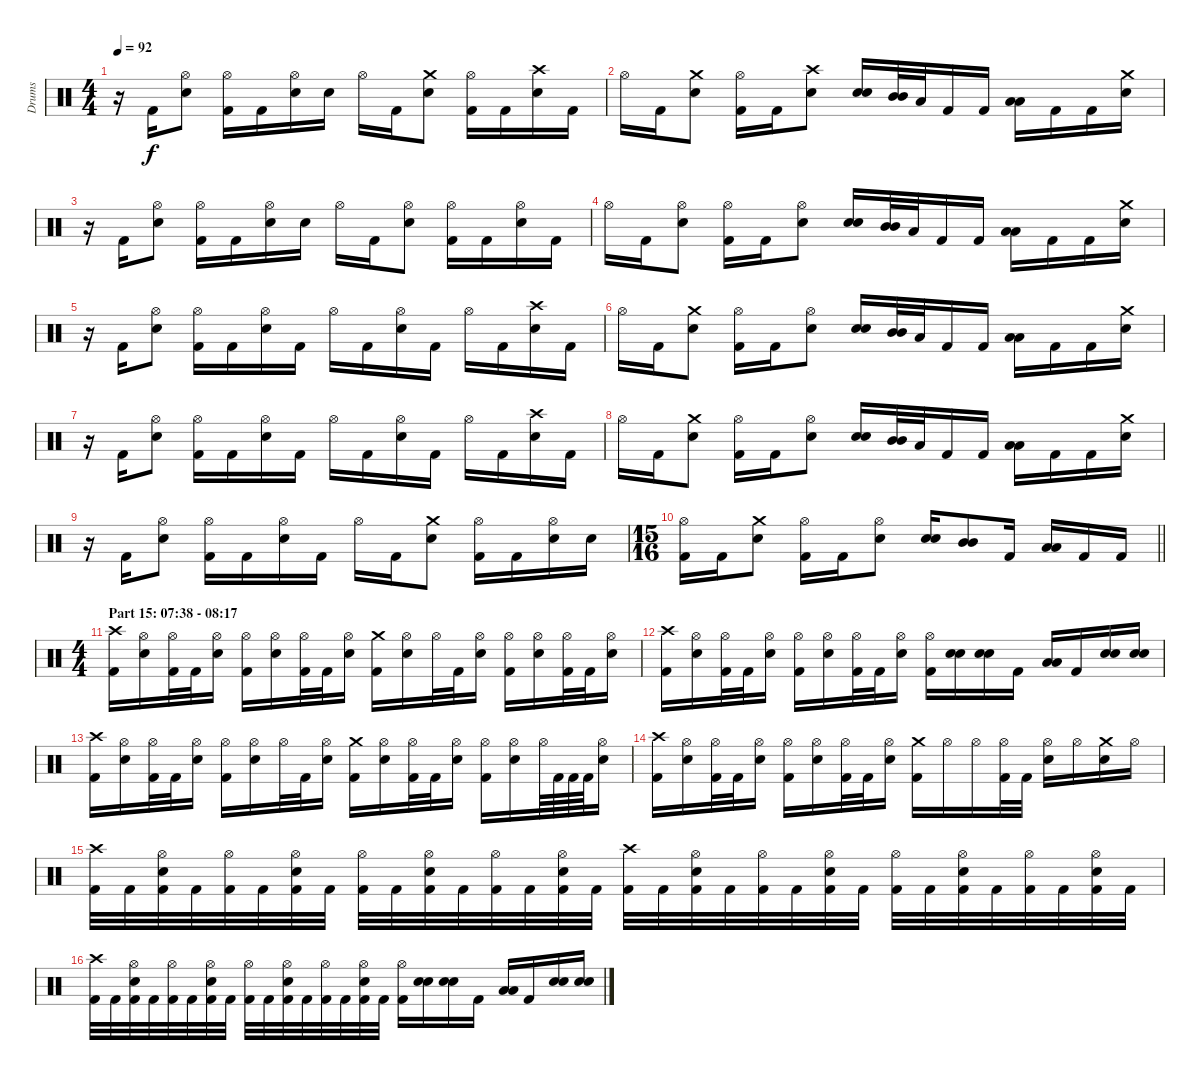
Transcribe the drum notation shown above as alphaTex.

\track ("Drums" "Drums") {instrument percussion}
\staff {score}
\articulation defaults
\ts (4 4)
\tempo 92
\clef neutral
\ks c
r.16{dy f} "Kick (hit) 2".16 ("Hi-Hat (open)" "Electric Snare (hit)").8 ("Hi-Hat (open)" "Kick (hit) 2").16 "Kick (hit) 2".16 ("Hi-Hat (open)" "Electric Snare (hit)").16 "Electric Snare (hit)".16 "Hi-Hat (open)".16 "Kick (hit) 2".16 ("Crash medium (hit)" "Electric Snare (hit)").8 ("Hi-Hat (open)" "Kick (hit) 2").16 "Kick (hit) 2".16 ("Crash high (hit)" "Electric Snare (hit)").16 "Kick (hit) 2".16 |
"Hi-Hat (open)".16 "Kick (hit) 2".16 ("Crash medium (hit)" "Electric Snare (hit)").8 ("Hi-Hat (open)" "Kick (hit) 2").16 "Kick (hit) 2".16 ("Crash high (hit)" "Electric Snare (hit)").8 ("Electric Snare (hit)" "Electric Snare (hit)").16{bd 30} ("Mid Tom (hit)" "Mid Tom (hit)").32{bd 30} "Low Tom (hit)".32 "Kick (hit) 2".16 "Kick (hit) 2".16 ("Low Tom (hit)" "Low Tom (hit)").16{bd 30} "Kick (hit) 2".16 "Kick (hit) 2".16 ("Crash medium (hit)" "Electric Snare (hit)").16 |
r.16 "Kick (hit) 2".16 ("Hi-Hat (open)" "Electric Snare (hit)").8 ("Hi-Hat (open)" "Kick (hit) 2").16 "Kick (hit) 2".16 ("Hi-Hat (open)" "Electric Snare (hit)").16 "Electric Snare (hit)".16 "Hi-Hat (open)".16 "Kick (hit) 2".16 ("Hi-Hat (open)" "Electric Snare (hit)").8 ("Hi-Hat (open)" "Kick (hit) 2").16 "Kick (hit) 2".16 ("Hi-Hat (open)" "Electric Snare (hit)").16 "Kick (hit) 2".16 |
"Hi-Hat (open)".16 "Kick (hit) 2".16 ("Hi-Hat (open)" "Electric Snare (hit)").8 ("Hi-Hat (open)" "Kick (hit) 2").16 "Kick (hit) 2".16 ("Hi-Hat (open)" "Electric Snare (hit)").8 ("Electric Snare (hit)" "Electric Snare (hit)").16{bd 30} ("Mid Tom (hit)" "Mid Tom (hit)").32{bd 30} "Low Tom (hit)".32 "Kick (hit) 2".16 "Kick (hit) 2".16 ("Low Tom (hit)" "Low Tom (hit)").16{bd 30} "Kick (hit) 2".16 "Kick (hit) 2".16 ("Crash medium (hit)" "Electric Snare (hit)").16 |
r.16 "Kick (hit) 2".16 ("Hi-Hat (open)" "Electric Snare (hit)").8 ("Hi-Hat (open)" "Kick (hit) 2").16 "Kick (hit) 2".16 ("Hi-Hat (open)" "Electric Snare (hit)").16 "Kick (hit) 2".16 "Hi-Hat (open)".16 "Kick (hit) 2".16 ("Hi-Hat (open)" "Electric Snare (hit)").16 "Kick (hit) 2".16 "Hi-Hat (open)".16 "Kick (hit) 2".16 ("Crash high (hit)" "Electric Snare (hit)").16 "Kick (hit) 2".16 |
"Hi-Hat (open)".16 "Kick (hit) 2".16 ("Crash medium (hit)" "Electric Snare (hit)").8 ("Hi-Hat (open)" "Kick (hit) 2").16 "Kick (hit) 2".16 ("Hi-Hat (open)" "Electric Snare (hit)").8 ("Electric Snare (hit)" "Electric Snare (hit)").16{bd 30} ("Mid Tom (hit)" "Mid Tom (hit)").32{bd 30} "Low Tom (hit)".32 "Kick (hit) 2".16 "Kick (hit) 2".16 ("Low Tom (hit)" "Low Tom (hit)").16{bd 30} "Kick (hit) 2".16 "Kick (hit) 2".16 ("Crash medium (hit)" "Electric Snare (hit)").16 |
r.16 "Kick (hit) 2".16 ("Hi-Hat (open)" "Electric Snare (hit)").8 ("Hi-Hat (open)" "Kick (hit) 2").16 "Kick (hit) 2".16 ("Hi-Hat (open)" "Electric Snare (hit)").16 "Kick (hit) 2".16 "Hi-Hat (open)".16 "Kick (hit) 2".16 ("Hi-Hat (open)" "Electric Snare (hit)").16 "Kick (hit) 2".16 "Hi-Hat (open)".16 "Kick (hit) 2".16 ("Crash high (hit)" "Electric Snare (hit)").16 "Kick (hit) 2".16 |
"Hi-Hat (open)".16 "Kick (hit) 2".16 ("Crash medium (hit)" "Electric Snare (hit)").8 ("Hi-Hat (open)" "Kick (hit) 2").16 "Kick (hit) 2".16 ("Hi-Hat (open)" "Electric Snare (hit)").8 ("Electric Snare (hit)" "Electric Snare (hit)").16{bd 30} ("Mid Tom (hit)" "Mid Tom (hit)").32{bd 30} "Low Tom (hit)".32 "Kick (hit) 2".16 "Kick (hit) 2".16 ("Low Tom (hit)" "Low Tom (hit)").16{bd 30} "Kick (hit) 2".16 "Kick (hit) 2".16 ("Crash medium (hit)" "Electric Snare (hit)").16 |
r.16 "Kick (hit) 2".16 ("Hi-Hat (open)" "Electric Snare (hit)").8 ("Hi-Hat (open)" "Kick (hit) 2").16 "Kick (hit) 2".16 ("Hi-Hat (open)" "Electric Snare (hit)").16 "Kick (hit) 2".16 "Hi-Hat (open)".16 "Kick (hit) 2".16 ("Crash medium (hit)" "Electric Snare (hit)").8 ("Hi-Hat (open)" "Kick (hit) 2").16 "Kick (hit) 2".16 ("Hi-Hat (open)" "Electric Snare (hit)").16 "Electric Snare (hit)".16 |
\ts (15 16)
\barLineRight lightlight
("Hi-Hat (open)" "Kick (hit) 2").16 "Kick (hit) 2".16 ("Crash medium (hit)" "Electric Snare (hit)").8 ("Hi-Hat (open)" "Kick (hit) 2").16 "Kick (hit) 2".16 ("Hi-Hat (open)" "Electric Snare (hit)").8 ("Electric Snare (hit)" "Electric Snare (hit)").16{bd 30} ("Mid Tom (hit)" "Mid Tom (hit)").8{bd 30} "Kick (hit) 2".16 ("Low Tom (hit)" "Low Tom (hit)").16{bd 30} "Kick (hit) 2".16 "Kick (hit) 2".16 |
\ts (4 4)
\section ("" "Part 15: 07:38 - 08:17")
("Crash high (hit)" "Kick (hit) 2").16 ("Hi-Hat (open)" "Electric Snare (hit)").16 ("Hi-Hat (open)" "Kick (hit) 2").32 "Kick (hit) 2".32 ("Hi-Hat (open)" "Electric Snare (hit)").16 ("Hi-Hat (open)" "Kick (hit) 2").16 ("Hi-Hat (open)" "Electric Snare (hit)").16 ("Hi-Hat (open)" "Kick (hit) 2").32 "Kick (hit) 2".32 ("Hi-Hat (open)" "Electric Snare (hit)").16 ("Crash medium (hit)" "Kick (hit) 2").16 ("Hi-Hat (open)" "Electric Snare (hit)").16 "Hi-Hat (open)".32 "Kick (hit) 2".32 ("Hi-Hat (open)" "Electric Snare (hit)").16 ("Hi-Hat (open)" "Kick (hit) 2").16 ("Hi-Hat (open)" "Electric Snare (hit)").16 ("Hi-Hat (open)" "Kick (hit) 2").32 "Kick (hit) 2".32 ("Hi-Hat (open)" "Electric Snare (hit)").16 |
("Crash high (hit)" "Kick (hit) 2").16 ("Hi-Hat (open)" "Electric Snare (hit)").16 ("Hi-Hat (open)" "Kick (hit) 2").32 "Kick (hit) 2".32 ("Hi-Hat (open)" "Electric Snare (hit)").16 ("Hi-Hat (open)" "Kick (hit) 2").16 ("Hi-Hat (open)" "Electric Snare (hit)").16 ("Hi-Hat (open)" "Kick (hit) 2").32 "Kick (hit) 2".32 ("Hi-Hat (open)" "Electric Snare (hit)").16 ("Hi-Hat (open)" "Kick (hit) 2").16 ("Electric Snare (hit)" "Electric Snare (hit)").16{bd 30} ("Electric Snare (hit)" "Electric Snare (hit)").16{bd 30} "Kick (hit) 2".16 ("Low Tom (hit)" "Low Tom (hit)").16{bd 30} "Kick (hit) 2".16 ("Electric Snare (hit)" "Electric Snare (hit)").16{bd 30} ("Electric Snare (hit)" "Electric Snare (hit)").16{bd 30} |
("Crash high (hit)" "Kick (hit) 2").16 ("Hi-Hat (open)" "Electric Snare (hit)").16 ("Hi-Hat (open)" "Kick (hit) 2").32 "Kick (hit) 2".32 ("Hi-Hat (open)" "Electric Snare (hit)").16 ("Hi-Hat (open)" "Kick (hit) 2").16 ("Hi-Hat (open)" "Electric Snare (hit)").16 "Hi-Hat (open)".32 "Kick (hit) 2".32 ("Hi-Hat (open)" "Electric Snare (hit)").16 ("Crash medium (hit)" "Kick (hit) 2").16 ("Hi-Hat (open)" "Electric Snare (hit)").16 ("Hi-Hat (open)" "Kick (hit) 2").32 "Kick (hit) 2".32 ("Hi-Hat (open)" "Electric Snare (hit)").16 ("Hi-Hat (open)" "Kick (hit) 2").16 ("Hi-Hat (open)" "Electric Snare (hit)").16 "Hi-Hat (open)".64 "Kick (hit) 2".64 "Kick (hit) 2".64 "Kick (hit) 2".64 ("Hi-Hat (open)" "Electric Snare (hit)").16 |
("Crash high (hit)" "Kick (hit) 2").16 ("Hi-Hat (open)" "Electric Snare (hit)").16 ("Hi-Hat (open)" "Kick (hit) 2").32 "Kick (hit) 2".32 ("Hi-Hat (open)" "Electric Snare (hit)").16 ("Hi-Hat (open)" "Kick (hit) 2").16 ("Hi-Hat (open)" "Electric Snare (hit)").16 ("Hi-Hat (open)" "Kick (hit) 2").32 "Kick (hit) 2".32 ("Hi-Hat (open)" "Electric Snare (hit)").16 ("Crash medium (hit)" "Kick (hit) 2").16 "Hi-Hat (open)".16 "Hi-Hat (open)".16 ("Hi-Hat (open)" "Kick (hit) 2").32 "Kick (hit) 2".32 ("Hi-Hat (open)" "Electric Snare (hit)").16 "Hi-Hat (open)".16 ("Crash medium (hit)" "Electric Snare (hit)").16 "Hi-Hat (open)".16 |
("Crash high (hit)" "Kick (hit) 2").32 "Kick (hit) 2".32 ("Hi-Hat (open)" "Electric Snare (hit)" "Kick (hit) 2").32 "Kick (hit) 2".32 ("Hi-Hat (open)" "Kick (hit) 2").32 "Kick (hit) 2".32 ("Hi-Hat (open)" "Electric Snare (hit)" "Kick (hit) 2").32 "Kick (hit) 2".32 ("Hi-Hat (open)" "Kick (hit) 2").32 "Kick (hit) 2".32 ("Hi-Hat (open)" "Electric Snare (hit)" "Kick (hit) 2").32 "Kick (hit) 2".32 ("Hi-Hat (open)" "Kick (hit) 2").32 "Kick (hit) 2".32 ("Hi-Hat (open)" "Electric Snare (hit)" "Kick (hit) 2").32 "Kick (hit) 2".32 ("Crash high (hit)" "Kick (hit) 2").32 "Kick (hit) 2".32 ("Hi-Hat (open)" "Electric Snare (hit)" "Kick (hit) 2").32 "Kick (hit) 2".32 ("Hi-Hat (open)" "Kick (hit) 2").32 "Kick (hit) 2".32 ("Hi-Hat (open)" "Electric Snare (hit)" "Kick (hit) 2").32 "Kick (hit) 2".32 ("Hi-Hat (open)" "Kick (hit) 2").32 "Kick (hit) 2".32 ("Hi-Hat (open)" "Electric Snare (hit)" "Kick (hit) 2").32 "Kick (hit) 2".32 ("Hi-Hat (open)" "Kick (hit) 2").32 "Kick (hit) 2".32 ("Hi-Hat (open)" "Electric Snare (hit)" "Kick (hit) 2").32 "Kick (hit) 2".32 |
("Crash high (hit)" "Kick (hit) 2").32 "Kick (hit) 2".32 ("Hi-Hat (open)" "Electric Snare (hit)" "Kick (hit) 2").32 "Kick (hit) 2".32 ("Hi-Hat (open)" "Kick (hit) 2").32 "Kick (hit) 2".32 ("Hi-Hat (open)" "Electric Snare (hit)" "Kick (hit) 2").32 "Kick (hit) 2".32 ("Hi-Hat (open)" "Kick (hit) 2").32 "Kick (hit) 2".32 ("Hi-Hat (open)" "Electric Snare (hit)" "Kick (hit) 2").32 "Kick (hit) 2".32 ("Hi-Hat (open)" "Kick (hit) 2").32 "Kick (hit) 2".32 ("Hi-Hat (open)" "Electric Snare (hit)" "Kick (hit) 2").32 "Kick (hit) 2".32 ("Hi-Hat (open)" "Kick (hit) 2").16 ("Electric Snare (hit)" "Electric Snare (hit)").16{bd 30} ("Electric Snare (hit)" "Electric Snare (hit)").16{bd 30} "Kick (hit) 2".16 ("Low Tom (hit)" "Low Tom (hit)").16{bd 30} "Kick (hit) 2".16 ("Electric Snare (hit)" "Electric Snare (hit)").16{bd 30} ("Electric Snare (hit)" "Electric Snare (hit)").16{bd 30}
